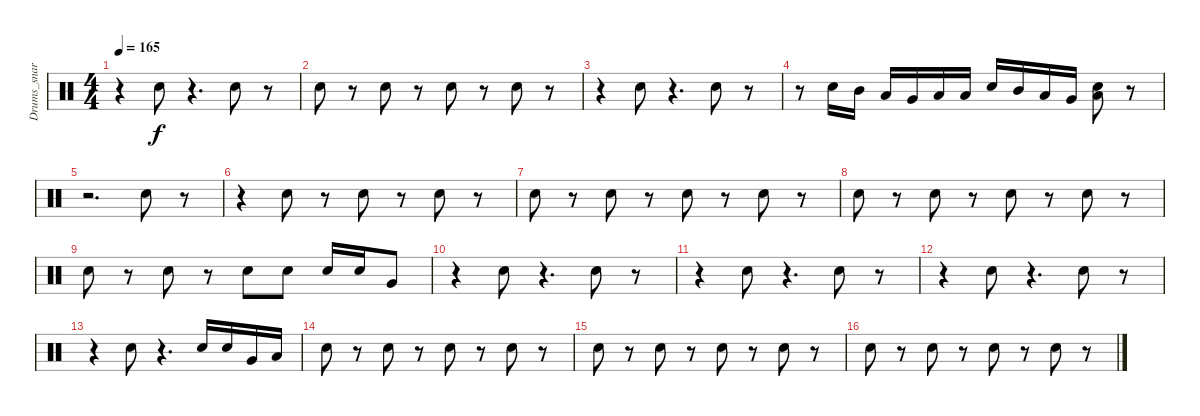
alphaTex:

\track ("Drums_snare&tom" "Drums_snar") {instrument percussion}
\staff {score}
\articulation defaults
\ts (4 4)
\tempo 165
\clef neutral
\ks c
r.4{dy f} "Snare (hit) 2".8 r.4{d} "Snare (hit) 2".8 r.8 |
"Snare (hit) 2".8 r.8 "Snare (hit) 2".8 r.8 "Snare (hit) 2".8 r.8 "Snare (hit) 2".8 r.8 |
r.4 "Snare (hit) 2".8 r.4{d} "Snare (hit) 2".8 r.8 |
r.8 "Snare (hit) 2".16 "Mid Tom (hit)".16 "Low Tom (hit)".16 "Very Low Tom (hit)".16 "Low Floor Tom (hit)".16 "Low Floor Tom (hit)".16 "Snare (hit) 2".16 "Mid Tom (hit)".16 "Low Tom (hit)".16 "Very Low Tom (hit)".16 ("Snare (hit) 2" "Low Floor Tom (hit)").8 r.8 |
r.2{d} "Snare (hit) 2".8 r.8 |
r.4 "Snare (hit) 2".8 r.8 "Snare (hit) 2".8 r.8 "Snare (hit) 2".8 r.8 |
"Snare (hit) 2".8 r.8 "Snare (hit) 2".8 r.8 "Snare (hit) 2".8 r.8 "Snare (hit) 2".8 r.8 |
"Snare (hit) 2".8 r.8 "Snare (hit) 2".8 r.8 "Snare (hit) 2".8 r.8 "Snare (hit) 2".8 r.8 |
"Snare (hit) 2".8 r.8 "Snare (hit) 2".8 r.8 "Snare (hit) 2".8 "Snare (hit) 2".8 "Snare (hit) 2".16 "Snare (hit) 2".16 "Very Low Tom (hit)".8 |
r.4 "Snare (hit) 2".8 r.4{d} "Snare (hit) 2".8 r.8 |
r.4 "Snare (hit) 2".8 r.4{d} "Snare (hit) 2".8 r.8 |
r.4 "Snare (hit) 2".8 r.4{d} "Snare (hit) 2".8 r.8 |
r.4 "Snare (hit) 2".8 r.4{d} "Snare (hit) 2".16 "Snare (hit) 2".16 "Very Low Tom (hit)".16 "Low Floor Tom (hit)".16 |
"Snare (hit) 2".8 r.8 "Snare (hit) 2".8 r.8 "Snare (hit) 2".8 r.8 "Snare (hit) 2".8 r.8 |
"Snare (hit) 2".8 r.8 "Snare (hit) 2".8 r.8 "Snare (hit) 2".8 r.8 "Snare (hit) 2".8 r.8 |
"Snare (hit) 2".8 r.8 "Snare (hit) 2".8 r.8 "Snare (hit) 2".8 r.8 "Snare (hit) 2".8 r.8
